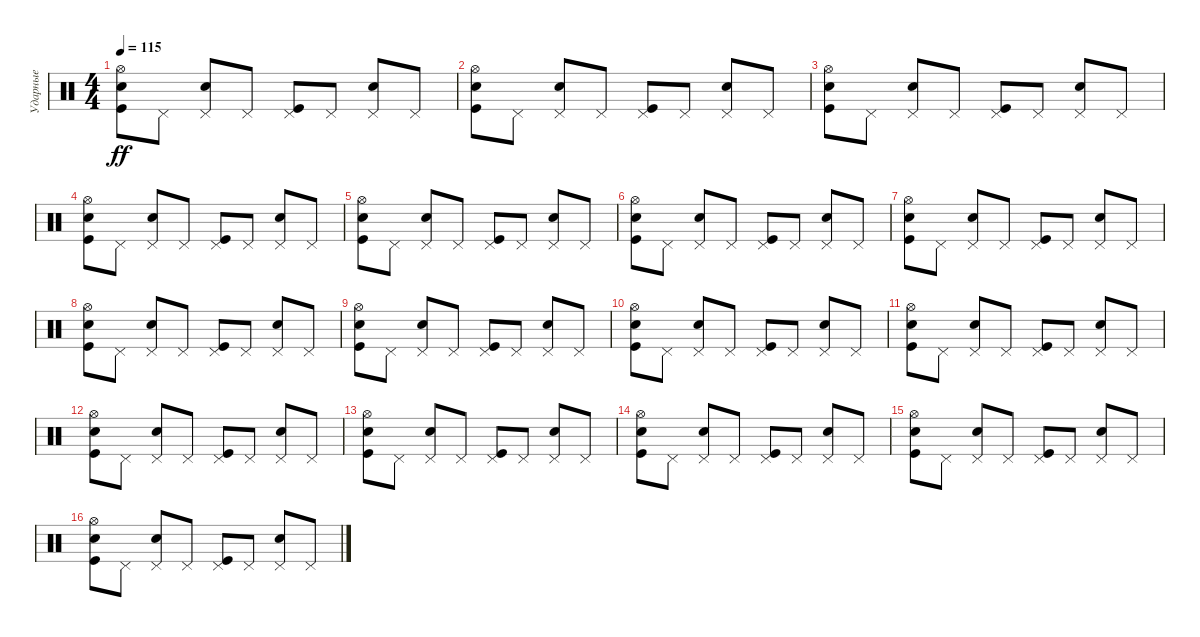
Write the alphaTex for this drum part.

\track ("Ударные" "Ударные") {instrument percussion}
\staff {score}
\articulation defaults
\ts (4 4)
\tempo 115
\clef neutral
\ks c
("Kick (hit)" "Electric Snare (hit)" "Hi-Hat (open)").8{dy ff} "Pedal Hi-Hat (hit)".8 ("Electric Snare (hit)" "Pedal Hi-Hat (hit)").8 "Pedal Hi-Hat (hit)".8 ("Kick (hit)" "Pedal Hi-Hat (hit)").8 "Pedal Hi-Hat (hit)".8 ("Electric Snare (hit)" "Pedal Hi-Hat (hit)").8 "Pedal Hi-Hat (hit)".8 |
("Kick (hit)" "Electric Snare (hit)" "Hi-Hat (open)").8 "Pedal Hi-Hat (hit)".8 ("Electric Snare (hit)" "Pedal Hi-Hat (hit)").8 "Pedal Hi-Hat (hit)".8 ("Kick (hit)" "Pedal Hi-Hat (hit)").8 "Pedal Hi-Hat (hit)".8 ("Electric Snare (hit)" "Pedal Hi-Hat (hit)").8 "Pedal Hi-Hat (hit)".8 |
("Kick (hit)" "Electric Snare (hit)" "Hi-Hat (open)").8 "Pedal Hi-Hat (hit)".8 ("Electric Snare (hit)" "Pedal Hi-Hat (hit)").8 "Pedal Hi-Hat (hit)".8 ("Kick (hit)" "Pedal Hi-Hat (hit)").8 "Pedal Hi-Hat (hit)".8 ("Electric Snare (hit)" "Pedal Hi-Hat (hit)").8 "Pedal Hi-Hat (hit)".8 |
("Kick (hit)" "Electric Snare (hit)" "Hi-Hat (open)").8 "Pedal Hi-Hat (hit)".8 ("Electric Snare (hit)" "Pedal Hi-Hat (hit)").8 "Pedal Hi-Hat (hit)".8 ("Kick (hit)" "Pedal Hi-Hat (hit)").8 "Pedal Hi-Hat (hit)".8 ("Electric Snare (hit)" "Pedal Hi-Hat (hit)").8 "Pedal Hi-Hat (hit)".8 |
("Kick (hit)" "Electric Snare (hit)" "Hi-Hat (open)").8 "Pedal Hi-Hat (hit)".8 ("Electric Snare (hit)" "Pedal Hi-Hat (hit)").8 "Pedal Hi-Hat (hit)".8 ("Kick (hit)" "Pedal Hi-Hat (hit)").8 "Pedal Hi-Hat (hit)".8 ("Electric Snare (hit)" "Pedal Hi-Hat (hit)").8 "Pedal Hi-Hat (hit)".8 |
("Kick (hit)" "Electric Snare (hit)" "Hi-Hat (open)").8 "Pedal Hi-Hat (hit)".8 ("Electric Snare (hit)" "Pedal Hi-Hat (hit)").8 "Pedal Hi-Hat (hit)".8 ("Kick (hit)" "Pedal Hi-Hat (hit)").8 "Pedal Hi-Hat (hit)".8 ("Electric Snare (hit)" "Pedal Hi-Hat (hit)").8 "Pedal Hi-Hat (hit)".8 |
("Kick (hit)" "Electric Snare (hit)" "Hi-Hat (open)").8 "Pedal Hi-Hat (hit)".8 ("Electric Snare (hit)" "Pedal Hi-Hat (hit)").8 "Pedal Hi-Hat (hit)".8 ("Kick (hit)" "Pedal Hi-Hat (hit)").8 "Pedal Hi-Hat (hit)".8 ("Electric Snare (hit)" "Pedal Hi-Hat (hit)").8 "Pedal Hi-Hat (hit)".8 |
("Kick (hit)" "Electric Snare (hit)" "Hi-Hat (open)").8 "Pedal Hi-Hat (hit)".8 ("Electric Snare (hit)" "Pedal Hi-Hat (hit)").8 "Pedal Hi-Hat (hit)".8 ("Kick (hit)" "Pedal Hi-Hat (hit)").8 "Pedal Hi-Hat (hit)".8 ("Electric Snare (hit)" "Pedal Hi-Hat (hit)").8 "Pedal Hi-Hat (hit)".8 |
("Kick (hit)" "Electric Snare (hit)" "Hi-Hat (open)").8 "Pedal Hi-Hat (hit)".8 ("Electric Snare (hit)" "Pedal Hi-Hat (hit)").8 "Pedal Hi-Hat (hit)".8 ("Kick (hit)" "Pedal Hi-Hat (hit)").8 "Pedal Hi-Hat (hit)".8 ("Electric Snare (hit)" "Pedal Hi-Hat (hit)").8 "Pedal Hi-Hat (hit)".8 |
("Kick (hit)" "Electric Snare (hit)" "Hi-Hat (open)").8 "Pedal Hi-Hat (hit)".8 ("Electric Snare (hit)" "Pedal Hi-Hat (hit)").8 "Pedal Hi-Hat (hit)".8 ("Kick (hit)" "Pedal Hi-Hat (hit)").8 "Pedal Hi-Hat (hit)".8 ("Electric Snare (hit)" "Pedal Hi-Hat (hit)").8 "Pedal Hi-Hat (hit)".8 |
("Kick (hit)" "Electric Snare (hit)" "Hi-Hat (open)").8 "Pedal Hi-Hat (hit)".8 ("Electric Snare (hit)" "Pedal Hi-Hat (hit)").8 "Pedal Hi-Hat (hit)".8 ("Kick (hit)" "Pedal Hi-Hat (hit)").8 "Pedal Hi-Hat (hit)".8 ("Electric Snare (hit)" "Pedal Hi-Hat (hit)").8 "Pedal Hi-Hat (hit)".8 |
("Kick (hit)" "Electric Snare (hit)" "Hi-Hat (open)").8 "Pedal Hi-Hat (hit)".8 ("Electric Snare (hit)" "Pedal Hi-Hat (hit)").8 "Pedal Hi-Hat (hit)".8 ("Kick (hit)" "Pedal Hi-Hat (hit)").8 "Pedal Hi-Hat (hit)".8 ("Electric Snare (hit)" "Pedal Hi-Hat (hit)").8 "Pedal Hi-Hat (hit)".8 |
("Kick (hit)" "Electric Snare (hit)" "Hi-Hat (open)").8 "Pedal Hi-Hat (hit)".8 ("Electric Snare (hit)" "Pedal Hi-Hat (hit)").8 "Pedal Hi-Hat (hit)".8 ("Kick (hit)" "Pedal Hi-Hat (hit)").8 "Pedal Hi-Hat (hit)".8 ("Electric Snare (hit)" "Pedal Hi-Hat (hit)").8 "Pedal Hi-Hat (hit)".8 |
("Kick (hit)" "Electric Snare (hit)" "Hi-Hat (open)").8 "Pedal Hi-Hat (hit)".8 ("Electric Snare (hit)" "Pedal Hi-Hat (hit)").8 "Pedal Hi-Hat (hit)".8 ("Kick (hit)" "Pedal Hi-Hat (hit)").8 "Pedal Hi-Hat (hit)".8 ("Electric Snare (hit)" "Pedal Hi-Hat (hit)").8 "Pedal Hi-Hat (hit)".8 |
("Kick (hit)" "Electric Snare (hit)" "Hi-Hat (open)").8 "Pedal Hi-Hat (hit)".8 ("Electric Snare (hit)" "Pedal Hi-Hat (hit)").8 "Pedal Hi-Hat (hit)".8 ("Kick (hit)" "Pedal Hi-Hat (hit)").8 "Pedal Hi-Hat (hit)".8 ("Electric Snare (hit)" "Pedal Hi-Hat (hit)").8 "Pedal Hi-Hat (hit)".8 |
("Kick (hit)" "Electric Snare (hit)" "Hi-Hat (open)").8 "Pedal Hi-Hat (hit)".8 ("Electric Snare (hit)" "Pedal Hi-Hat (hit)").8 "Pedal Hi-Hat (hit)".8 ("Kick (hit)" "Pedal Hi-Hat (hit)").8 "Pedal Hi-Hat (hit)".8 ("Electric Snare (hit)" "Pedal Hi-Hat (hit)").8 "Pedal Hi-Hat (hit)".8
